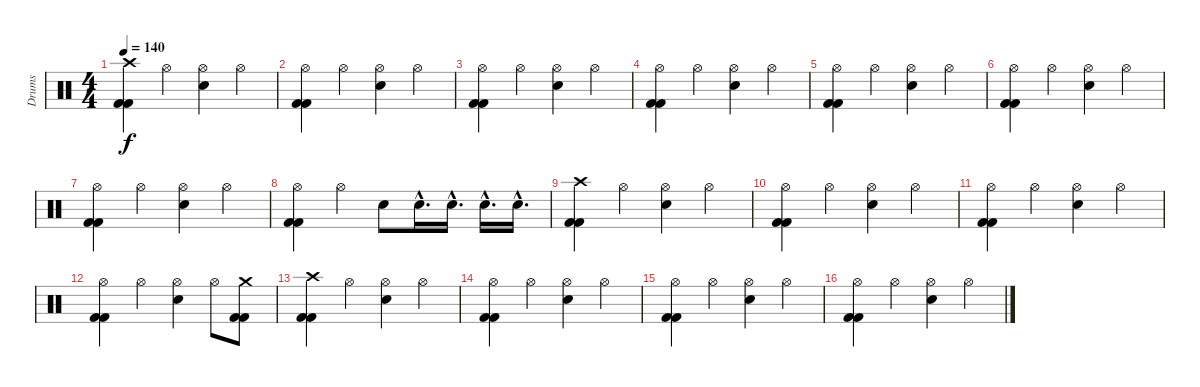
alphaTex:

\track ("Drums" "Drums") {instrument percussion}
\staff {score}
\articulation defaults
\ts (4 4)
\tempo 140
\clef neutral
\ks c
("Crash high (hit)" "Kick (hit) 2" "Kick (hit) 2").4{dy f} "Hi-Hat (open)".4 ("Hi-Hat (open)" "Electric Snare (hit)").4 "Hi-Hat (open)".4 |
("Hi-Hat (open)" "Kick (hit) 2" "Kick (hit) 2").4 "Hi-Hat (open)".4 ("Hi-Hat (open)" "Electric Snare (hit)").4 "Hi-Hat (open)".4 |
("Hi-Hat (open)" "Kick (hit) 2" "Kick (hit) 2").4 "Hi-Hat (open)".4 ("Hi-Hat (open)" "Electric Snare (hit)").4 "Hi-Hat (open)".4 |
("Hi-Hat (open)" "Kick (hit) 2" "Kick (hit) 2").4 "Hi-Hat (open)".4 ("Hi-Hat (open)" "Electric Snare (hit)").4 "Hi-Hat (open)".4 |
("Hi-Hat (open)" "Kick (hit) 2" "Kick (hit) 2").4 "Hi-Hat (open)".4 ("Hi-Hat (open)" "Electric Snare (hit)").4 "Hi-Hat (open)".4 |
("Hi-Hat (open)" "Kick (hit) 2" "Kick (hit) 2").4 "Hi-Hat (open)".4 ("Hi-Hat (open)" "Electric Snare (hit)").4 "Hi-Hat (open)".4 |
("Hi-Hat (open)" "Kick (hit) 2" "Kick (hit) 2").4 "Hi-Hat (open)".4 ("Hi-Hat (open)" "Electric Snare (hit)").4 "Hi-Hat (open)".4 |
("Hi-Hat (open)" "Kick (hit) 2" "Kick (hit) 2").4 "Hi-Hat (open)".4 "Electric Snare (hit)".8 "Electric Snare (hit)"{hac}.16{d} "Electric Snare (hit)"{hac}.16{d} "Electric Snare (hit)"{hac}.16{d} "Electric Snare (hit)"{hac}.16{d} |
("Crash high (hit)" "Kick (hit) 2" "Kick (hit) 2").4 "Hi-Hat (open)".4 ("Hi-Hat (open)" "Electric Snare (hit)").4 "Hi-Hat (open)".4 |
("Hi-Hat (open)" "Kick (hit) 2" "Kick (hit) 2").4 "Hi-Hat (open)".4 ("Hi-Hat (open)" "Electric Snare (hit)").4 "Hi-Hat (open)".4 |
("Hi-Hat (open)" "Kick (hit) 2" "Kick (hit) 2").4 "Hi-Hat (open)".4 ("Hi-Hat (open)" "Electric Snare (hit)").4 "Hi-Hat (open)".4 |
("Hi-Hat (open)" "Kick (hit) 2" "Kick (hit) 2").4 "Hi-Hat (open)".4 ("Hi-Hat (open)" "Electric Snare (hit)").4 "Hi-Hat (open)".8 ("Crash medium (hit)" "Kick (hit) 2" "Kick (hit) 2").8 |
("Crash high (hit)" "Kick (hit) 2" "Kick (hit) 2").4 "Hi-Hat (open)".4 ("Hi-Hat (open)" "Electric Snare (hit)").4 "Hi-Hat (open)".4 |
("Hi-Hat (open)" "Kick (hit) 2" "Kick (hit) 2").4 "Hi-Hat (open)".4 ("Hi-Hat (open)" "Electric Snare (hit)").4 "Hi-Hat (open)".4 |
("Hi-Hat (open)" "Kick (hit) 2" "Kick (hit) 2").4 "Hi-Hat (open)".4 ("Hi-Hat (open)" "Electric Snare (hit)").4 "Hi-Hat (open)".4 |
("Hi-Hat (open)" "Kick (hit) 2" "Kick (hit) 2").4 "Hi-Hat (open)".4 ("Hi-Hat (open)" "Electric Snare (hit)").4 "Hi-Hat (open)".4
